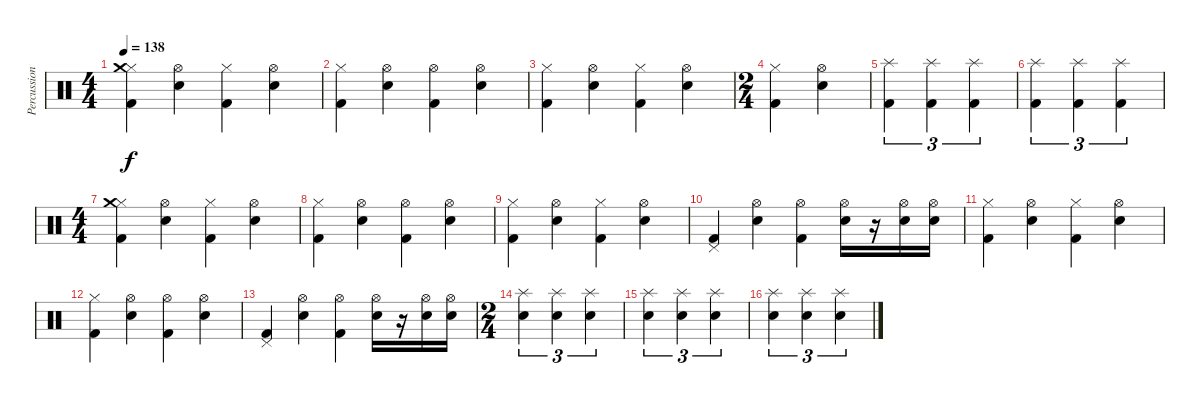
\track ("Percussion" "Percussion") {instrument percussion}
\staff {score}
\articulation defaults
\ts (4 4)
\tempo 138
\clef neutral
\ks c
("Hi-Hat (closed)" "Crash medium (hit)" "Kick (hit) 2").4{dy f} ("Hi-Hat (open)" "Snare (hit) 2").4 ("Hi-Hat (closed)" "Kick (hit) 2").4 ("Hi-Hat (open)" "Snare (hit) 2").4 |
("Hi-Hat (closed)" "Kick (hit) 2").4 ("Hi-Hat (open)" "Snare (hit) 2").4 ("Hi-Hat (open)" "Kick (hit) 2").4 ("Hi-Hat (open)" "Snare (hit) 2").4 |
("Hi-Hat (closed)" "Kick (hit) 2").4 ("Hi-Hat (open)" "Snare (hit) 2").4 ("Hi-Hat (closed)" "Kick (hit) 2").4 ("Hi-Hat (open)" "Snare (hit) 2").4 |
\ts (2 4)
("Hi-Hat (closed)" "Kick (hit) 2").4 ("Hi-Hat (open)" "Snare (hit) 2").4 |
("Kick (hit) 2" "Splash (hit)").4{tu (3 2)} ("Kick (hit) 2" "Splash (hit)").4{tu (3 2)} ("Kick (hit) 2" "Splash (hit)").4{tu (3 2)} |
("Kick (hit) 2" "Splash (hit)").4{tu (3 2)} ("Kick (hit) 2" "Splash (hit)").4{tu (3 2)} ("Kick (hit) 2" "Splash (hit)").4{tu (3 2)} |
\ts (4 4)
("Hi-Hat (closed)" "Crash medium (hit)" "Kick (hit) 2").4 ("Hi-Hat (open)" "Snare (hit) 2").4 ("Hi-Hat (closed)" "Kick (hit) 2").4 ("Hi-Hat (open)" "Snare (hit) 2").4 |
("Hi-Hat (closed)" "Kick (hit) 2").4 ("Hi-Hat (open)" "Snare (hit) 2").4 ("Hi-Hat (open)" "Kick (hit) 2").4 ("Hi-Hat (open)" "Snare (hit) 2").4 |
("Hi-Hat (closed)" "Kick (hit) 2").4 ("Hi-Hat (open)" "Snare (hit) 2").4 ("Hi-Hat (closed)" "Kick (hit) 2").4 ("Hi-Hat (open)" "Snare (hit) 2").4 |
("Pedal Hi-Hat (hit)" "Kick (hit) 2").4 ("Hi-Hat (open)" "Snare (hit) 2").4 ("Hi-Hat (open)" "Kick (hit) 2").4 ("Hi-Hat (open)" "Snare (hit) 2").16 r.16 ("Hi-Hat (open)" "Snare (hit) 2").16 ("Hi-Hat (open)" "Snare (hit) 2").16 |
("Hi-Hat (closed)" "Kick (hit) 2").4 ("Hi-Hat (open)" "Snare (hit) 2").4 ("Hi-Hat (closed)" "Kick (hit) 2").4 ("Hi-Hat (open)" "Snare (hit) 2").4 |
("Hi-Hat (closed)" "Kick (hit) 2").4 ("Hi-Hat (open)" "Snare (hit) 2").4 ("Hi-Hat (open)" "Kick (hit) 2").4 ("Hi-Hat (open)" "Snare (hit) 2").4 |
("Pedal Hi-Hat (hit)" "Kick (hit) 2").4 ("Hi-Hat (open)" "Snare (hit) 2").4 ("Hi-Hat (open)" "Kick (hit) 2").4 ("Hi-Hat (open)" "Snare (hit) 2").16 r.16 ("Hi-Hat (open)" "Snare (hit) 2").16 ("Hi-Hat (open)" "Snare (hit) 2").16 |
\ts (2 4)
("Electric Snare (hit)" "Splash (hit)").4{tu (3 2)} ("Electric Snare (hit)" "Splash (hit)").4{tu (3 2)} ("Electric Snare (hit)" "Splash (hit)").4{tu (3 2)} |
("Electric Snare (hit)" "Splash (hit)").4{tu (3 2)} ("Electric Snare (hit)" "Splash (hit)").4{tu (3 2)} ("Electric Snare (hit)" "Splash (hit)").4{tu (3 2)} |
("Electric Snare (hit)" "Splash (hit)").4{tu (3 2)} ("Electric Snare (hit)" "Splash (hit)").4{tu (3 2)} ("Electric Snare (hit)" "Splash (hit)").4{tu (3 2)}
